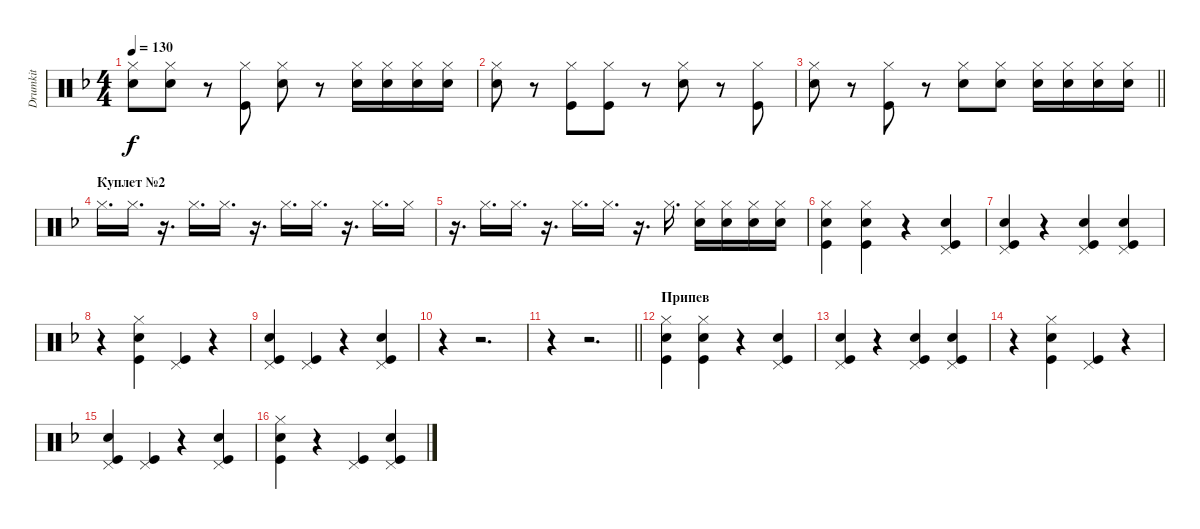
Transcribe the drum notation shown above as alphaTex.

\track ("Drumkit" "Drumkit") {instrument percussion}
\staff {score}
\articulation defaults
\ts (4 4)
\tempo 130
\clef neutral
\ks f
("Hi-Hat (closed)" "Snare (hit) 2").8{dy f} ("Hi-Hat (closed)" "Snare (hit) 2").8 r.8 ("Hi-Hat (closed)" "Kick (hit)").8 ("Hi-Hat (closed)" "Snare (hit) 2").8 r.8 ("Snare (hit) 2" "Hi-Hat (closed)").16 ("Snare (hit) 2" "Hi-Hat (closed)").16 ("Snare (hit) 2" "Hi-Hat (closed)").16 ("Snare (hit) 2" "Hi-Hat (closed)").16 |
("Hi-Hat (closed)" "Snare (hit) 2").8 r.8 ("Hi-Hat (closed)" "Kick (hit)").8 ("Hi-Hat (closed)" "Kick (hit)").8 r.8 ("Hi-Hat (closed)" "Snare (hit) 2").8 r.8 ("Hi-Hat (closed)" "Kick (hit)").8 |
\barLineRight lightlight
("Hi-Hat (closed)" "Snare (hit) 2").8 r.8 ("Hi-Hat (closed)" "Kick (hit)").8 r.8 ("Hi-Hat (closed)" "Snare (hit) 2").8 ("Hi-Hat (closed)" "Snare (hit) 2").8 ("Hi-Hat (closed)" "Snare (hit) 2").16 ("Hi-Hat (closed)" "Snare (hit) 2").16 ("Hi-Hat (closed)" "Snare (hit) 2").16 ("Hi-Hat (closed)" "Snare (hit) 2").16 |
\section ("" "Куплет №2")
"Hi-Hat (closed)".16{d} "Hi-Hat (closed)".16{d} r.16{d} "Hi-Hat (closed)".16{d} "Hi-Hat (closed)".16{d} r.16{d} "Hi-Hat (closed)".16{d} "Hi-Hat (closed)".16{d} r.16{d} "Hi-Hat (closed)".16{d} "Hi-Hat (closed)".16 |
r.16{d} "Hi-Hat (closed)".16{d} "Hi-Hat (closed)".16{d} r.16{d} "Hi-Hat (closed)".16{d} "Hi-Hat (closed)".16{d} r.16{d} "Hi-Hat (closed)".16{d} ("Snare (hit) 2" "Hi-Hat (closed)").16 ("Snare (hit) 2" "Hi-Hat (closed)").16 ("Snare (hit) 2" "Hi-Hat (closed)").16 ("Snare (hit) 2" "Hi-Hat (closed)").16 |
("Kick (hit)" "Snare (hit) 2" "Hi-Hat (closed)").4 ("Kick (hit)" "Snare (hit) 2" "Hi-Hat (closed)").4 r.4 ("Kick (hit)" "Snare (hit) 2" "Pedal Hi-Hat (hit)").4 |
("Kick (hit)" "Snare (hit) 2" "Pedal Hi-Hat (hit)").4 r.4 ("Kick (hit)" "Snare (hit) 2" "Pedal Hi-Hat (hit)").4 ("Kick (hit)" "Snare (hit) 2" "Pedal Hi-Hat (hit)").4 |
r.4 ("Kick (hit)" "Snare (hit) 2" "Hi-Hat (closed)").4 ("Kick (hit)" "Pedal Hi-Hat (hit)").4 r.4 |
("Kick (hit)" "Snare (hit) 2" "Pedal Hi-Hat (hit)").4 ("Kick (hit)" "Pedal Hi-Hat (hit)").4 r.4 ("Kick (hit)" "Snare (hit) 2" "Pedal Hi-Hat (hit)").4 |
r.4 r.2{d} |
\barLineRight lightlight
r.4 r.2{d} |
\section ("" "Припев")
("Kick (hit)" "Snare (hit) 2" "Hi-Hat (closed)").4 ("Kick (hit)" "Snare (hit) 2" "Hi-Hat (closed)").4 r.4 ("Kick (hit)" "Snare (hit) 2" "Pedal Hi-Hat (hit)").4 |
("Kick (hit)" "Snare (hit) 2" "Pedal Hi-Hat (hit)").4 r.4 ("Kick (hit)" "Snare (hit) 2" "Pedal Hi-Hat (hit)").4 ("Kick (hit)" "Snare (hit) 2" "Pedal Hi-Hat (hit)").4 |
r.4 ("Kick (hit)" "Snare (hit) 2" "Hi-Hat (closed)").4 ("Kick (hit)" "Pedal Hi-Hat (hit)").4 r.4 |
("Kick (hit)" "Snare (hit) 2" "Pedal Hi-Hat (hit)").4 ("Kick (hit)" "Pedal Hi-Hat (hit)").4 r.4 ("Kick (hit)" "Snare (hit) 2" "Pedal Hi-Hat (hit)").4 |
("Kick (hit)" "Snare (hit) 2" "Hi-Hat (closed)").4 r.4 ("Kick (hit)" "Pedal Hi-Hat (hit)").4 ("Kick (hit)" "Snare (hit) 2" "Pedal Hi-Hat (hit)").4
